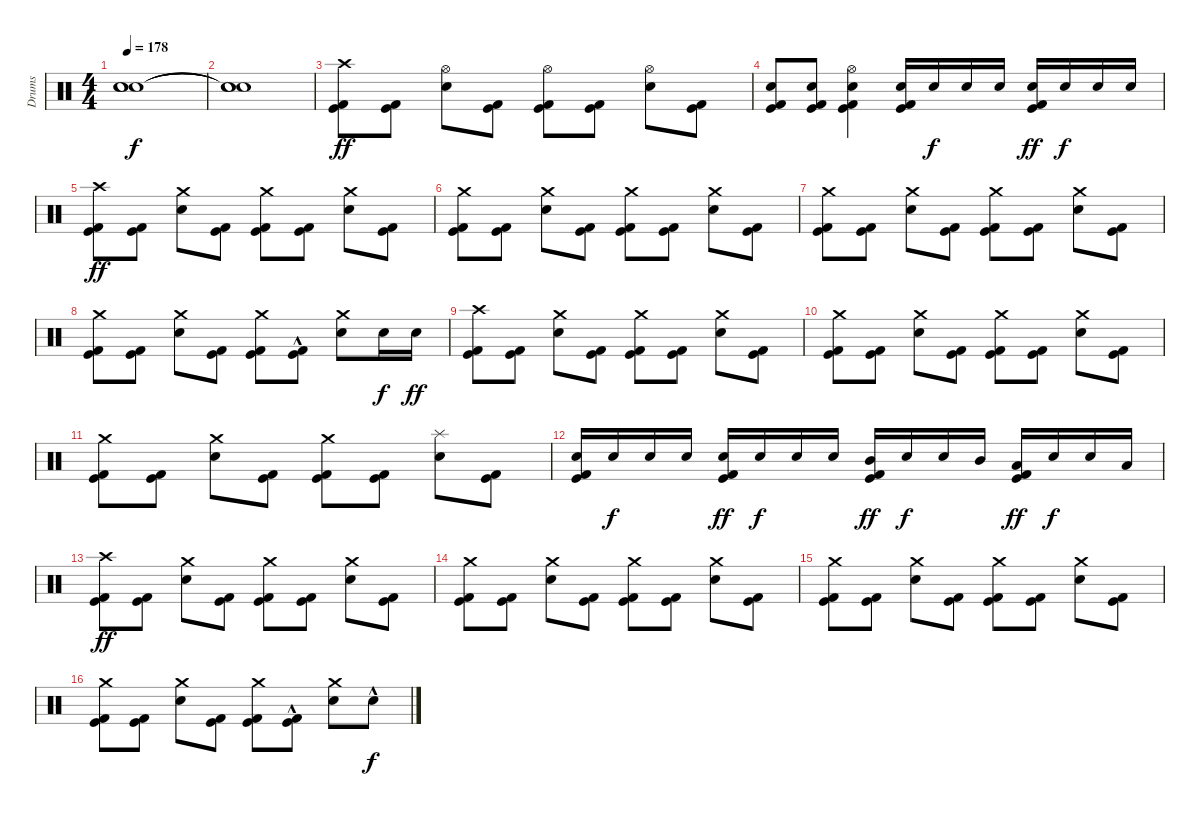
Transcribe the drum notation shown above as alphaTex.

\track ("Drums" "Drums") {instrument percussion}
\staff {score}
\articulation defaults
\ts (4 4)
\tempo 178
\clef neutral
\ks c
("Snare (hit)"{t} "Snare (hit)"{t} "Snare (hit)"{t}).1{dy f} |
("Snare (hit)"{t} "Snare (hit)"{t} "Snare (hit)"{t}).1 |
("Kick (hit)" "Kick (hit) 2" "Crash high (hit)").8{dy ff} ("Kick (hit)" "Kick (hit) 2").8 ("Electric Snare (hit)" "Hi-Hat (open)").8 ("Kick (hit)" "Kick (hit) 2").8 ("Kick (hit)" "Kick (hit) 2" "Hi-Hat (open)").8 ("Kick (hit)" "Kick (hit) 2").8 ("Electric Snare (hit)" "Hi-Hat (open)").8 ("Kick (hit)" "Kick (hit) 2").8 |
("Kick (hit)" "Kick (hit) 2" "Electric Snare (hit)").8 ("Kick (hit)" "Kick (hit) 2" "Electric Snare (hit)").8 ("Kick (hit)" "Kick (hit) 2" "Electric Snare (hit)" "Hi-Hat (open)").4 ("Kick (hit)" "Kick (hit) 2" "Electric Snare (hit)").16 "Electric Snare (hit)".16{dy f} "Electric Snare (hit)".16 "Electric Snare (hit)".16 ("Kick (hit)" "Kick (hit) 2" "Electric Snare (hit)").16{dy ff} "Electric Snare (hit)".16{dy f} "Electric Snare (hit)".16 "Electric Snare (hit)".16 |
("Kick (hit)" "Kick (hit) 2" "Crash high (hit)").8{dy ff} ("Kick (hit)" "Kick (hit) 2").8 ("Electric Snare (hit)" "Crash medium (hit)").8 ("Kick (hit)" "Kick (hit) 2").8 ("Kick (hit)" "Kick (hit) 2" "Crash medium (hit)").8 ("Kick (hit)" "Kick (hit) 2").8 ("Electric Snare (hit)" "Crash medium (hit)").8 ("Kick (hit)" "Kick (hit) 2").8 |
("Kick (hit)" "Kick (hit) 2" "Crash medium (hit)").8 ("Kick (hit)" "Kick (hit) 2").8 ("Electric Snare (hit)" "Crash medium (hit)").8 ("Kick (hit)" "Kick (hit) 2").8 ("Kick (hit)" "Kick (hit) 2" "Crash medium (hit)").8 ("Kick (hit)" "Kick (hit) 2").8 ("Electric Snare (hit)" "Crash medium (hit)").8 ("Kick (hit)" "Kick (hit) 2").8 |
("Kick (hit)" "Kick (hit) 2" "Crash medium (hit)").8 ("Kick (hit)" "Kick (hit) 2").8 ("Electric Snare (hit)" "Crash medium (hit)").8 ("Kick (hit)" "Kick (hit) 2").8 ("Kick (hit)" "Kick (hit) 2" "Crash medium (hit)").8 ("Kick (hit)" "Kick (hit) 2").8 ("Electric Snare (hit)" "Crash medium (hit)").8 ("Kick (hit)" "Kick (hit) 2").8 |
("Kick (hit)" "Kick (hit) 2" "Crash medium (hit)").8 ("Kick (hit)" "Kick (hit) 2").8 ("Electric Snare (hit)" "Crash medium (hit)").8 ("Kick (hit)" "Kick (hit) 2").8 ("Kick (hit)" "Kick (hit) 2" "Crash medium (hit)").8 ("Kick (hit)"{hac} "Kick (hit) 2"{hac}).8 ("Electric Snare (hit)" "Crash medium (hit)").8 "Electric Snare (hit)".16{dy f} "Electric Snare (hit)".16{dy ff} |
("Kick (hit)" "Kick (hit) 2" "Crash high (hit)").8 ("Kick (hit)" "Kick (hit) 2").8 ("Electric Snare (hit)" "Crash medium (hit)").8 ("Kick (hit)" "Kick (hit) 2").8 ("Kick (hit)" "Kick (hit) 2" "Crash medium (hit)").8 ("Kick (hit)" "Kick (hit) 2").8 ("Electric Snare (hit)" "Crash medium (hit)").8 ("Kick (hit)" "Kick (hit) 2").8 |
("Kick (hit)" "Kick (hit) 2" "Crash medium (hit)").8 ("Kick (hit)" "Kick (hit) 2").8 ("Electric Snare (hit)" "Crash medium (hit)").8 ("Kick (hit)" "Kick (hit) 2").8 ("Kick (hit)" "Kick (hit) 2" "Crash medium (hit)").8 ("Kick (hit)" "Kick (hit) 2").8 ("Electric Snare (hit)" "Crash medium (hit)").8 ("Kick (hit)" "Kick (hit) 2").8 |
("Kick (hit)" "Kick (hit) 2" "Crash medium (hit)").8 ("Kick (hit)" "Kick (hit) 2").8 ("Electric Snare (hit)" "Crash medium (hit)").8 ("Kick (hit)" "Kick (hit) 2").8 ("Kick (hit)" "Kick (hit) 2" "Crash medium (hit)").8 ("Kick (hit)" "Kick (hit) 2").8 ("Electric Snare (hit)" "Splash (hit)").8 ("Kick (hit)" "Kick (hit) 2").8 |
("Kick (hit)" "Kick (hit) 2" "Electric Snare (hit)").16 "Electric Snare (hit)".16{dy f} "Electric Snare (hit)".16 "Electric Snare (hit)".16 ("Kick (hit)" "Kick (hit) 2" "Electric Snare (hit)").16{dy ff} "Electric Snare (hit)".16{dy f} "Electric Snare (hit)".16 "Electric Snare (hit)".16 ("Kick (hit)" "Kick (hit) 2" "Mid Tom (hit)").16{dy ff} "Electric Snare (hit)".16{dy f} "Electric Snare (hit)".16 "Mid Tom (hit)".16 ("Kick (hit)" "Kick (hit) 2" "Low Tom (hit)").16{dy ff} "Electric Snare (hit)".16{dy f} "Electric Snare (hit)".16 "Low Tom (hit)".16 |
("Kick (hit)" "Kick (hit) 2" "Crash high (hit)").8{dy ff} ("Kick (hit)" "Kick (hit) 2").8 ("Electric Snare (hit)" "Crash medium (hit)").8 ("Kick (hit)" "Kick (hit) 2").8 ("Kick (hit)" "Kick (hit) 2" "Crash medium (hit)").8 ("Kick (hit)" "Kick (hit) 2").8 ("Electric Snare (hit)" "Crash medium (hit)").8 ("Kick (hit)" "Kick (hit) 2").8 |
("Kick (hit)" "Kick (hit) 2" "Crash medium (hit)").8 ("Kick (hit)" "Kick (hit) 2").8 ("Electric Snare (hit)" "Crash medium (hit)").8 ("Kick (hit)" "Kick (hit) 2").8 ("Kick (hit)" "Kick (hit) 2" "Crash medium (hit)").8 ("Kick (hit)" "Kick (hit) 2").8 ("Electric Snare (hit)" "Crash medium (hit)").8 ("Kick (hit)" "Kick (hit) 2").8 |
("Kick (hit)" "Kick (hit) 2" "Crash medium (hit)").8 ("Kick (hit)" "Kick (hit) 2").8 ("Electric Snare (hit)" "Crash medium (hit)").8 ("Kick (hit)" "Kick (hit) 2").8 ("Kick (hit)" "Kick (hit) 2" "Crash medium (hit)").8 ("Kick (hit)" "Kick (hit) 2").8 ("Electric Snare (hit)" "Crash medium (hit)").8 ("Kick (hit)" "Kick (hit) 2").8 |
("Kick (hit)" "Kick (hit) 2" "Crash medium (hit)").8 ("Kick (hit)" "Kick (hit) 2").8 ("Electric Snare (hit)" "Crash medium (hit)").8 ("Kick (hit)" "Kick (hit) 2").8 ("Kick (hit)" "Kick (hit) 2" "Crash medium (hit)").8 ("Kick (hit)"{hac} "Kick (hit) 2"{hac}).8 ("Electric Snare (hit)" "Crash medium (hit)").8 "Electric Snare (hit)"{hac}.8{dy f}
